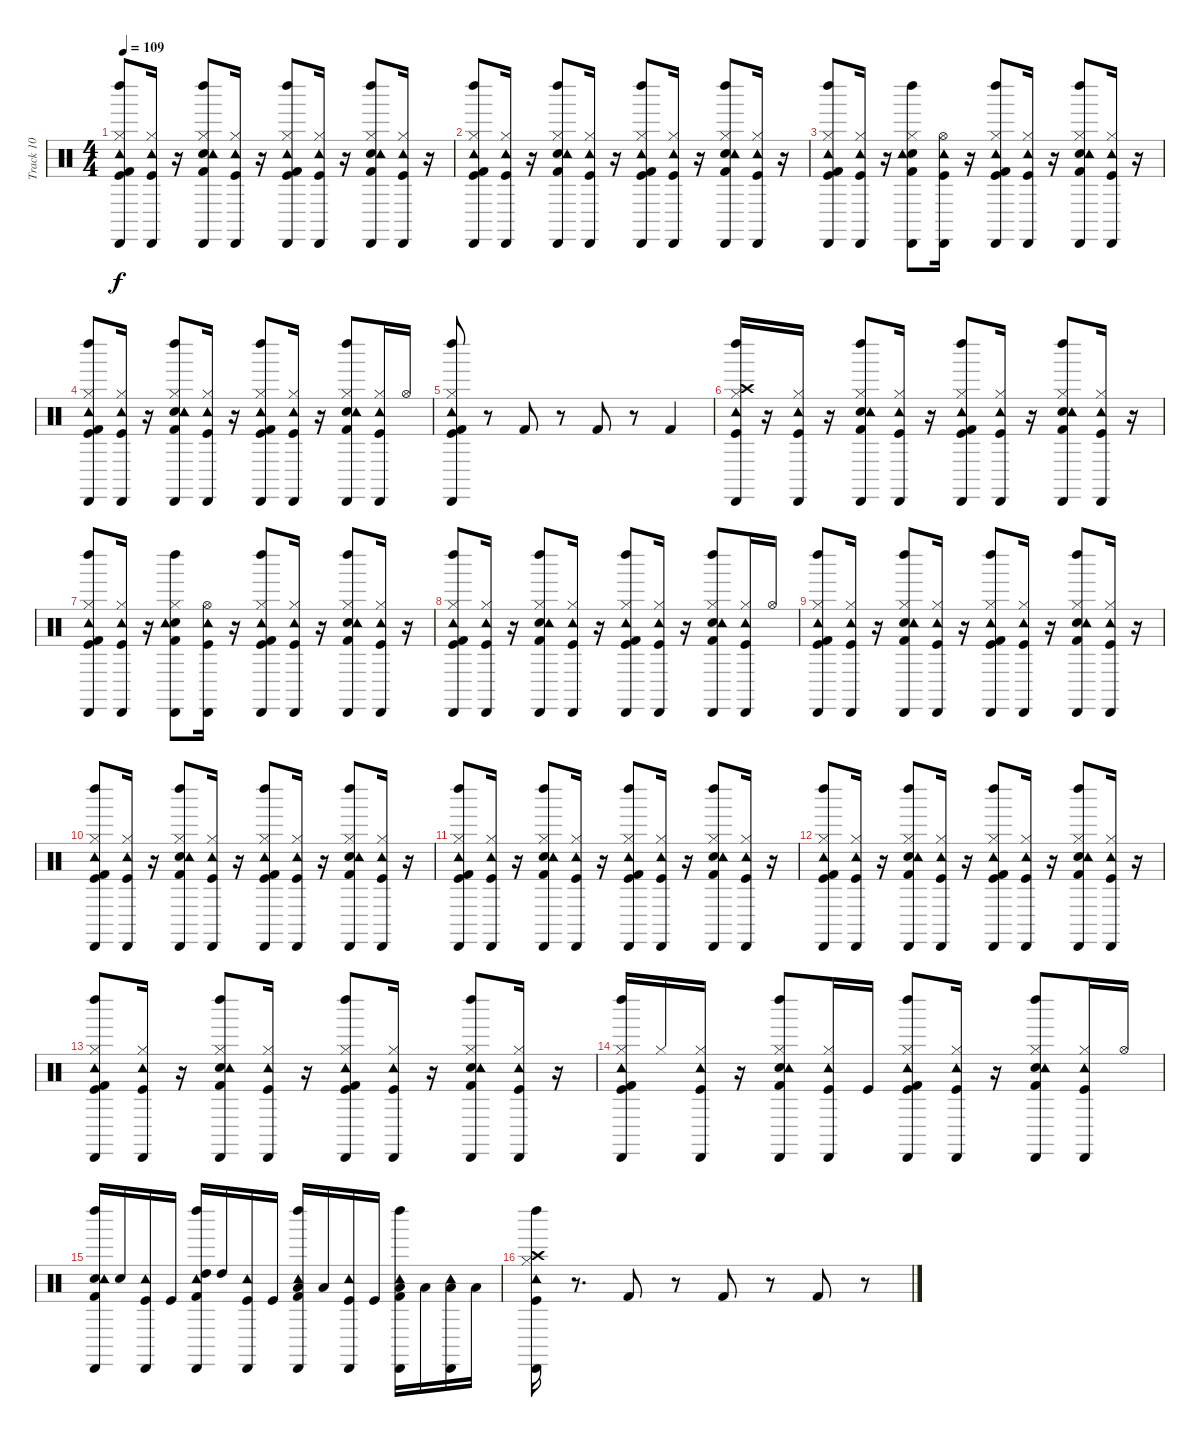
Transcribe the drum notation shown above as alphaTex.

\track ("Track 10" "Track 10") {instrument percussion}
\staff {score}
\articulation defaults
\ts (4 4)
\tempo 109
\clef neutral
\ks c
("Kick (hit)" "Hi-Hat (closed)" "Tambourine (hit)" "Left Maraca (hit)" "Cabasa (hit)" "Kick (hit) 2").8{dy f} ("Kick (hit)" "Hi-Hat (closed)" "Tambourine (hit)" "Cabasa (hit)").16 r.16 ("Snare (hit) 2" "Hi-Hat (closed)" "Tambourine (hit)" "Left Maraca (hit)" "Cabasa (hit)" "Kick (hit) 2").8 ("Kick (hit)" "Hi-Hat (closed)" "Tambourine (hit)" "Cabasa (hit)").16 r.16 ("Kick (hit)" "Hi-Hat (closed)" "Tambourine (hit)" "Left Maraca (hit)" "Cabasa (hit)" "Kick (hit) 2").8 ("Kick (hit)" "Hi-Hat (closed)" "Tambourine (hit)" "Cabasa (hit)").16 r.16 ("Snare (hit) 2" "Hi-Hat (closed)" "Tambourine (hit)" "Left Maraca (hit)" "Cabasa (hit)" "Kick (hit) 2").8 ("Kick (hit)" "Hi-Hat (closed)" "Tambourine (hit)" "Cabasa (hit)").16 r.16 |
("Kick (hit)" "Hi-Hat (closed)" "Tambourine (hit)" "Left Maraca (hit)" "Cabasa (hit)" "Kick (hit) 2").8 ("Kick (hit)" "Hi-Hat (closed)" "Tambourine (hit)" "Cabasa (hit)").16 r.16 ("Snare (hit) 2" "Hi-Hat (closed)" "Tambourine (hit)" "Left Maraca (hit)" "Cabasa (hit)" "Kick (hit) 2").8 ("Kick (hit)" "Hi-Hat (closed)" "Tambourine (hit)" "Cabasa (hit)").16 r.16 ("Kick (hit)" "Hi-Hat (closed)" "Tambourine (hit)" "Left Maraca (hit)" "Cabasa (hit)" "Kick (hit) 2").8 ("Kick (hit)" "Hi-Hat (closed)" "Tambourine (hit)" "Cabasa (hit)").16 r.16 ("Snare (hit) 2" "Hi-Hat (closed)" "Tambourine (hit)" "Left Maraca (hit)" "Cabasa (hit)" "Kick (hit) 2").8 ("Kick (hit)" "Hi-Hat (closed)" "Tambourine (hit)" "Cabasa (hit)").16 r.16 |
("Kick (hit)" "Hi-Hat (closed)" "Tambourine (hit)" "Left Maraca (hit)" "Cabasa (hit)" "Kick (hit) 2").8 ("Kick (hit)" "Hi-Hat (closed)" "Tambourine (hit)" "Cabasa (hit)").16 r.16 ("Snare (hit) 2" "Hi-Hat (closed)" "Tambourine (hit)" "Left Maraca (hit)" "Cabasa (hit)" "Kick (hit) 2").8 ("Kick (hit)" "Hi-Hat (open)" "Tambourine (hit)" "Cabasa (hit)").16 r.16 ("Kick (hit)" "Hi-Hat (closed)" "Tambourine (hit)" "Left Maraca (hit)" "Cabasa (hit)" "Kick (hit) 2").8 ("Kick (hit)" "Hi-Hat (closed)" "Tambourine (hit)" "Cabasa (hit)").16 r.16 ("Snare (hit) 2" "Hi-Hat (closed)" "Tambourine (hit)" "Left Maraca (hit)" "Cabasa (hit)" "Kick (hit) 2").8 ("Kick (hit)" "Hi-Hat (closed)" "Tambourine (hit)" "Cabasa (hit)").16 r.16 |
("Kick (hit)" "Hi-Hat (closed)" "Tambourine (hit)" "Left Maraca (hit)" "Cabasa (hit)" "Kick (hit) 2").8 ("Kick (hit)" "Hi-Hat (closed)" "Tambourine (hit)" "Cabasa (hit)").16 r.16 ("Snare (hit) 2" "Hi-Hat (closed)" "Tambourine (hit)" "Left Maraca (hit)" "Cabasa (hit)" "Kick (hit) 2").8 ("Kick (hit)" "Hi-Hat (closed)" "Tambourine (hit)" "Cabasa (hit)").16 r.16 ("Kick (hit)" "Hi-Hat (closed)" "Tambourine (hit)" "Left Maraca (hit)" "Cabasa (hit)" "Kick (hit) 2").8 ("Kick (hit)" "Hi-Hat (closed)" "Tambourine (hit)" "Cabasa (hit)").16 r.16 ("Snare (hit) 2" "Hi-Hat (closed)" "Tambourine (hit)" "Left Maraca (hit)" "Cabasa (hit)" "Kick (hit) 2").8 ("Kick (hit)" "Hi-Hat (closed)" "Tambourine (hit)" "Cabasa (hit)").16 "Hi-Hat (open)".16 |
("Kick (hit)" "Hi-Hat (closed)" "Tambourine (hit)" "Left Maraca (hit)" "Cabasa (hit)" "Kick (hit) 2").8 r.8 "Kick (hit) 2".8 r.8 "Kick (hit) 2".8 r.8 "Kick (hit) 2".4 |
("Kick (hit)" "Hi-Hat (closed)" "Crash high (hit)" "Tambourine (hit)" "Left Maraca (hit)" "Cabasa (hit)").16 r.16 ("Kick (hit)" "Hi-Hat (closed)" "Tambourine (hit)" "Cabasa (hit)").16 r.16 ("Snare (hit) 2" "Hi-Hat (closed)" "Tambourine (hit)" "Left Maraca (hit)" "Cabasa (hit)" "Kick (hit) 2").8 ("Kick (hit)" "Hi-Hat (closed)" "Tambourine (hit)" "Cabasa (hit)").16 r.16 ("Kick (hit)" "Hi-Hat (closed)" "Tambourine (hit)" "Left Maraca (hit)" "Cabasa (hit)" "Kick (hit) 2").8 ("Kick (hit)" "Hi-Hat (closed)" "Tambourine (hit)" "Cabasa (hit)").16 r.16 ("Snare (hit) 2" "Hi-Hat (closed)" "Tambourine (hit)" "Left Maraca (hit)" "Cabasa (hit)" "Kick (hit) 2").8 ("Kick (hit)" "Hi-Hat (closed)" "Tambourine (hit)" "Cabasa (hit)").16 r.16 |
("Kick (hit)" "Hi-Hat (closed)" "Tambourine (hit)" "Left Maraca (hit)" "Cabasa (hit)" "Kick (hit) 2").8 ("Kick (hit)" "Hi-Hat (closed)" "Tambourine (hit)" "Cabasa (hit)").16 r.16 ("Snare (hit) 2" "Hi-Hat (closed)" "Tambourine (hit)" "Left Maraca (hit)" "Cabasa (hit)" "Kick (hit) 2").8 ("Kick (hit)" "Hi-Hat (open)" "Tambourine (hit)" "Cabasa (hit)").16 r.16 ("Kick (hit)" "Hi-Hat (closed)" "Tambourine (hit)" "Left Maraca (hit)" "Cabasa (hit)" "Kick (hit) 2").8 ("Kick (hit)" "Hi-Hat (closed)" "Tambourine (hit)" "Cabasa (hit)").16 r.16 ("Snare (hit) 2" "Hi-Hat (closed)" "Tambourine (hit)" "Left Maraca (hit)" "Cabasa (hit)" "Kick (hit) 2").8 ("Kick (hit)" "Hi-Hat (closed)" "Tambourine (hit)" "Cabasa (hit)").16 r.16 |
("Kick (hit)" "Hi-Hat (closed)" "Tambourine (hit)" "Left Maraca (hit)" "Cabasa (hit)" "Kick (hit) 2").8 ("Kick (hit)" "Hi-Hat (closed)" "Tambourine (hit)" "Cabasa (hit)").16 r.16 ("Snare (hit) 2" "Hi-Hat (closed)" "Tambourine (hit)" "Left Maraca (hit)" "Cabasa (hit)" "Kick (hit) 2").8 ("Kick (hit)" "Hi-Hat (closed)" "Tambourine (hit)" "Cabasa (hit)").16 r.16 ("Kick (hit)" "Hi-Hat (closed)" "Tambourine (hit)" "Left Maraca (hit)" "Cabasa (hit)" "Kick (hit) 2").8 ("Kick (hit)" "Hi-Hat (closed)" "Tambourine (hit)" "Cabasa (hit)").16 r.16 ("Snare (hit) 2" "Hi-Hat (closed)" "Tambourine (hit)" "Left Maraca (hit)" "Cabasa (hit)" "Kick (hit) 2").8 ("Kick (hit)" "Hi-Hat (closed)" "Tambourine (hit)" "Cabasa (hit)").16 "Hi-Hat (open)".16 |
("Kick (hit)" "Hi-Hat (closed)" "Tambourine (hit)" "Left Maraca (hit)" "Cabasa (hit)" "Kick (hit) 2").8 ("Kick (hit)" "Hi-Hat (closed)" "Tambourine (hit)" "Cabasa (hit)").16 r.16 ("Snare (hit) 2" "Hi-Hat (closed)" "Tambourine (hit)" "Left Maraca (hit)" "Cabasa (hit)" "Kick (hit) 2").8 ("Kick (hit)" "Hi-Hat (closed)" "Tambourine (hit)" "Cabasa (hit)").16 r.16 ("Kick (hit)" "Hi-Hat (closed)" "Tambourine (hit)" "Left Maraca (hit)" "Cabasa (hit)" "Kick (hit) 2").8 ("Kick (hit)" "Hi-Hat (closed)" "Tambourine (hit)" "Cabasa (hit)").16 r.16 ("Snare (hit) 2" "Hi-Hat (closed)" "Tambourine (hit)" "Left Maraca (hit)" "Cabasa (hit)" "Kick (hit) 2").8 ("Kick (hit)" "Hi-Hat (closed)" "Tambourine (hit)" "Cabasa (hit)").16 r.16 |
("Kick (hit)" "Hi-Hat (closed)" "Tambourine (hit)" "Left Maraca (hit)" "Cabasa (hit)" "Kick (hit) 2").8 ("Kick (hit)" "Hi-Hat (closed)" "Tambourine (hit)" "Cabasa (hit)").16 r.16 ("Snare (hit) 2" "Hi-Hat (closed)" "Tambourine (hit)" "Left Maraca (hit)" "Cabasa (hit)" "Kick (hit) 2").8 ("Kick (hit)" "Hi-Hat (closed)" "Tambourine (hit)" "Cabasa (hit)").16 r.16 ("Kick (hit)" "Hi-Hat (closed)" "Tambourine (hit)" "Left Maraca (hit)" "Cabasa (hit)" "Kick (hit) 2").8 ("Kick (hit)" "Hi-Hat (closed)" "Tambourine (hit)" "Cabasa (hit)").16 r.16 ("Snare (hit) 2" "Hi-Hat (closed)" "Tambourine (hit)" "Left Maraca (hit)" "Cabasa (hit)" "Kick (hit) 2").8 ("Kick (hit)" "Hi-Hat (closed)" "Tambourine (hit)" "Cabasa (hit)").16 r.16 |
("Kick (hit)" "Hi-Hat (closed)" "Tambourine (hit)" "Left Maraca (hit)" "Cabasa (hit)" "Kick (hit) 2").8 ("Kick (hit)" "Hi-Hat (closed)" "Tambourine (hit)" "Cabasa (hit)").16 r.16 ("Snare (hit) 2" "Hi-Hat (closed)" "Tambourine (hit)" "Left Maraca (hit)" "Cabasa (hit)" "Kick (hit) 2").8 ("Kick (hit)" "Hi-Hat (closed)" "Tambourine (hit)" "Cabasa (hit)").16 r.16 ("Kick (hit)" "Hi-Hat (closed)" "Tambourine (hit)" "Left Maraca (hit)" "Cabasa (hit)" "Kick (hit) 2").8 ("Kick (hit)" "Hi-Hat (closed)" "Tambourine (hit)" "Cabasa (hit)").16 r.16 ("Snare (hit) 2" "Hi-Hat (closed)" "Tambourine (hit)" "Left Maraca (hit)" "Cabasa (hit)" "Kick (hit) 2").8 ("Kick (hit)" "Hi-Hat (closed)" "Tambourine (hit)" "Cabasa (hit)").16 r.16 |
("Kick (hit)" "Hi-Hat (closed)" "Tambourine (hit)" "Left Maraca (hit)" "Cabasa (hit)" "Kick (hit) 2").8 ("Kick (hit)" "Hi-Hat (closed)" "Tambourine (hit)" "Cabasa (hit)").16 r.16 ("Snare (hit) 2" "Hi-Hat (closed)" "Tambourine (hit)" "Left Maraca (hit)" "Cabasa (hit)" "Kick (hit) 2").8 ("Kick (hit)" "Hi-Hat (closed)" "Tambourine (hit)" "Cabasa (hit)").16 r.16 ("Kick (hit)" "Hi-Hat (closed)" "Tambourine (hit)" "Left Maraca (hit)" "Cabasa (hit)" "Kick (hit) 2").8 ("Kick (hit)" "Hi-Hat (closed)" "Tambourine (hit)" "Cabasa (hit)").16 r.16 ("Snare (hit) 2" "Hi-Hat (closed)" "Tambourine (hit)" "Left Maraca (hit)" "Cabasa (hit)" "Kick (hit) 2").8 ("Kick (hit)" "Hi-Hat (closed)" "Tambourine (hit)" "Cabasa (hit)").16 r.16 |
("Kick (hit)" "Hi-Hat (closed)" "Tambourine (hit)" "Left Maraca (hit)" "Cabasa (hit)" "Kick (hit) 2").8 ("Kick (hit)" "Hi-Hat (closed)" "Tambourine (hit)" "Cabasa (hit)").16 r.16 ("Snare (hit) 2" "Hi-Hat (closed)" "Tambourine (hit)" "Left Maraca (hit)" "Cabasa (hit)" "Kick (hit) 2").8 ("Kick (hit)" "Hi-Hat (closed)" "Tambourine (hit)" "Cabasa (hit)").16 r.16 ("Kick (hit)" "Hi-Hat (closed)" "Tambourine (hit)" "Left Maraca (hit)" "Cabasa (hit)" "Kick (hit) 2").8 ("Kick (hit)" "Hi-Hat (closed)" "Tambourine (hit)" "Cabasa (hit)").16 r.16 ("Snare (hit) 2" "Hi-Hat (closed)" "Tambourine (hit)" "Left Maraca (hit)" "Cabasa (hit)" "Kick (hit) 2").8 ("Kick (hit)" "Hi-Hat (closed)" "Tambourine (hit)" "Cabasa (hit)").16 r.16 |
("Kick (hit)" "Hi-Hat (closed)" "Tambourine (hit)" "Left Maraca (hit)" "Cabasa (hit)" "Kick (hit) 2").16 "Hi-Hat (closed)".16 ("Kick (hit)" "Hi-Hat (closed)" "Tambourine (hit)" "Cabasa (hit)").16 r.16 ("Snare (hit) 2" "Hi-Hat (closed)" "Tambourine (hit)" "Left Maraca (hit)" "Cabasa (hit)" "Kick (hit) 2").8 ("Kick (hit)" "Hi-Hat (closed)" "Tambourine (hit)" "Cabasa (hit)").16 "Kick (hit)".16 ("Kick (hit)" "Hi-Hat (closed)" "Tambourine (hit)" "Left Maraca (hit)" "Cabasa (hit)" "Kick (hit) 2").8 ("Kick (hit)" "Hi-Hat (closed)" "Tambourine (hit)" "Cabasa (hit)").16 r.16 ("Snare (hit) 2" "Hi-Hat (closed)" "Tambourine (hit)" "Left Maraca (hit)" "Cabasa (hit)" "Kick (hit) 2").8 ("Kick (hit)" "Hi-Hat (closed)" "Tambourine (hit)" "Cabasa (hit)").16 "Hi-Hat (open)".16 |
("Snare (hit) 2" "Tambourine (hit)" "Left Maraca (hit)" "Cabasa (hit)" "Kick (hit) 2").16 "Snare (hit) 2".16 ("Kick (hit)" "Tambourine (hit)" "Cabasa (hit)").16 "Kick (hit)".16 ("High Tom (hit)" "Tambourine (hit)" "Left Maraca (hit)" "Cabasa (hit)" "Kick (hit) 2").16 "High Tom (hit)".16 ("Kick (hit)" "Tambourine (hit)" "Cabasa (hit)").16 "Kick (hit)".16 ("Low Tom (hit)" "Tambourine (hit)" "Left Maraca (hit)" "Cabasa (hit)" "Kick (hit) 2").16 "Low Tom (hit)".16 ("Kick (hit)" "Tambourine (hit)" "Cabasa (hit)").16 "Kick (hit)".16 ("Low Floor Tom (hit)" "Tambourine (hit)" "Left Maraca (hit)" "Cabasa (hit)" "Kick (hit) 2").16 "Low Floor Tom (hit)".16 ("Low Floor Tom (hit)" "Tambourine (hit)" "Cabasa (hit)").16 "Low Floor Tom (hit)".16 |
("Kick (hit)" "Hi-Hat (closed)" "Crash high (hit)" "Tambourine (hit)" "Left Maraca (hit)" "Cabasa (hit)").16 r.8{d} "Kick (hit) 2".8 r.8 "Kick (hit) 2".8 r.8 "Kick (hit) 2".8 r.8
